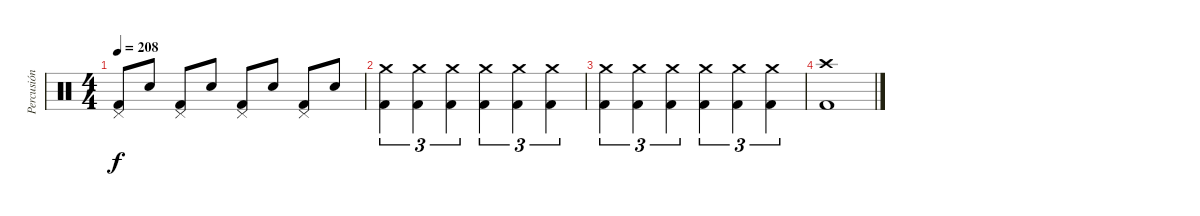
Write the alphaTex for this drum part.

\track ("Percusión" "Percusión") {instrument percussion}
\staff {score}
\articulation defaults
\ts (4 4)
\tempo 208
\clef neutral
\ks c
("Pedal Hi-Hat (hit)" "Kick (hit) 2").8{dy f} "Electric Snare (hit)".8 ("Pedal Hi-Hat (hit)" "Kick (hit) 2").8 "Electric Snare (hit)".8 ("Pedal Hi-Hat (hit)" "Kick (hit) 2").8 "Electric Snare (hit)".8 ("Pedal Hi-Hat (hit)" "Kick (hit) 2").8 "Electric Snare (hit)".8 |
("Crash medium (hit)" "Kick (hit) 2").4{tu (3 2)} ("Crash medium (hit)" "Kick (hit) 2").4{tu (3 2)} ("Crash medium (hit)" "Kick (hit) 2").4{tu (3 2)} ("Crash medium (hit)" "Kick (hit) 2").4{tu (3 2)} ("Crash medium (hit)" "Kick (hit) 2").4{tu (3 2)} ("Crash medium (hit)" "Kick (hit) 2").4{tu (3 2)} |
("Crash medium (hit)" "Kick (hit) 2").4{tu (3 2)} ("Crash medium (hit)" "Kick (hit) 2").4{tu (3 2)} ("Crash medium (hit)" "Kick (hit) 2").4{tu (3 2)} ("Crash medium (hit)" "Kick (hit) 2").4{tu (3 2)} ("Crash medium (hit)" "Kick (hit) 2").4{tu (3 2)} ("Crash medium (hit)" "Kick (hit) 2").4{tu (3 2)} |
("Crash high (hit)" "Kick (hit) 2").1
